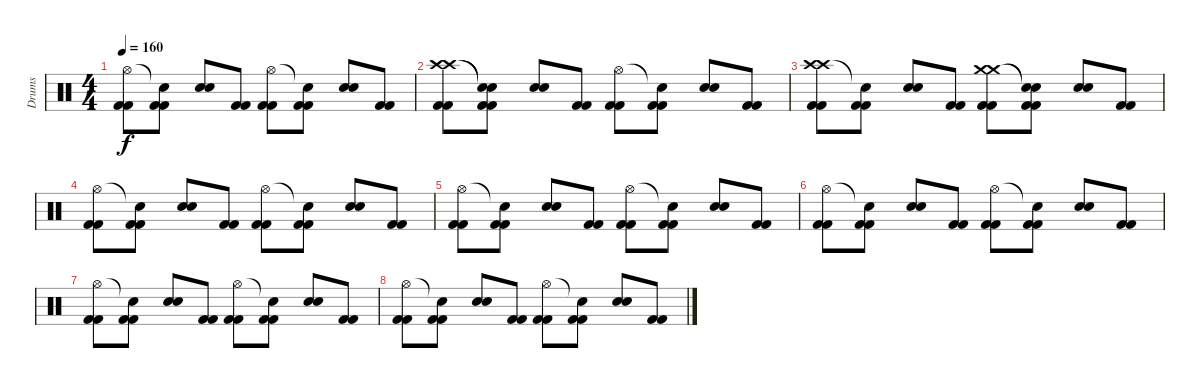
\track ("Drums" "Drums") {instrument percussion}
\staff {score}
\articulation defaults
\ts (4 4)
\tempo 160
\clef neutral
\ks c
("Hi-Hat (open)" "Kick (hit) 2" "Kick (hit) 2").8{dy f} ("Snare (hit)"{t} "Kick (hit) 2" "Kick (hit) 2").8 ("Electric Snare (hit)" "Electric Snare (hit)").8 ("Kick (hit) 2" "Kick (hit) 2").8 ("Hi-Hat (open)" "Kick (hit) 2" "Kick (hit) 2").8 ("Snare (hit)"{t} "Kick (hit) 2" "Kick (hit) 2").8 ("Electric Snare (hit)" "Electric Snare (hit)").8 ("Kick (hit) 2" "Kick (hit) 2").8 |
("Crash high (hit)" "Crash high (hit)" "Kick (hit) 2" "Kick (hit) 2").8 ("Snare (hit)"{t} "Snare (hit)"{t} "Kick (hit) 2" "Kick (hit) 2").8 ("Electric Snare (hit)" "Electric Snare (hit)").8 ("Kick (hit) 2" "Kick (hit) 2").8 ("Hi-Hat (open)" "Kick (hit) 2" "Kick (hit) 2").8 ("Snare (hit)"{t} "Kick (hit) 2" "Kick (hit) 2").8 ("Electric Snare (hit)" "Electric Snare (hit)").8 ("Kick (hit) 2" "Kick (hit) 2").8 |
("Crash high (hit)" "Crash high (hit)" "Kick (hit) 2" "Kick (hit) 2").8 ("Snare (hit)"{t} "Kick (hit) 2" "Kick (hit) 2").8 ("Electric Snare (hit)" "Electric Snare (hit)").8 ("Kick (hit) 2" "Kick (hit) 2").8 ("Crash medium (hit)" "Crash medium (hit)" "Kick (hit) 2" "Kick (hit) 2").8 ("Snare (hit)"{t} "Snare (hit)"{t} "Kick (hit) 2" "Kick (hit) 2").8 ("Electric Snare (hit)" "Electric Snare (hit)").8 ("Kick (hit) 2" "Kick (hit) 2").8 |
("Hi-Hat (open)" "Kick (hit) 2" "Kick (hit) 2").8 ("Snare (hit)"{t} "Kick (hit) 2" "Kick (hit) 2").8 ("Electric Snare (hit)" "Electric Snare (hit)").8 ("Kick (hit) 2" "Kick (hit) 2").8 ("Hi-Hat (open)" "Kick (hit) 2" "Kick (hit) 2").8 ("Snare (hit)"{t} "Kick (hit) 2" "Kick (hit) 2").8 ("Electric Snare (hit)" "Electric Snare (hit)").8 ("Kick (hit) 2" "Kick (hit) 2").8 |
("Hi-Hat (open)" "Kick (hit) 2" "Kick (hit) 2").8 ("Snare (hit)"{t} "Kick (hit) 2" "Kick (hit) 2").8 ("Electric Snare (hit)" "Electric Snare (hit)").8 ("Kick (hit) 2" "Kick (hit) 2").8 ("Hi-Hat (open)" "Kick (hit) 2" "Kick (hit) 2").8 ("Snare (hit)"{t} "Kick (hit) 2" "Kick (hit) 2").8 ("Electric Snare (hit)" "Electric Snare (hit)").8 ("Kick (hit) 2" "Kick (hit) 2").8 |
("Hi-Hat (open)" "Kick (hit) 2" "Kick (hit) 2").8 ("Snare (hit)"{t} "Kick (hit) 2" "Kick (hit) 2").8 ("Electric Snare (hit)" "Electric Snare (hit)").8 ("Kick (hit) 2" "Kick (hit) 2").8 ("Hi-Hat (open)" "Kick (hit) 2" "Kick (hit) 2").8 ("Snare (hit)"{t} "Kick (hit) 2" "Kick (hit) 2").8 ("Electric Snare (hit)" "Electric Snare (hit)").8 ("Kick (hit) 2" "Kick (hit) 2").8 |
("Hi-Hat (open)" "Kick (hit) 2" "Kick (hit) 2").8 ("Snare (hit)"{t} "Kick (hit) 2" "Kick (hit) 2").8 ("Electric Snare (hit)" "Electric Snare (hit)").8 ("Kick (hit) 2" "Kick (hit) 2").8 ("Hi-Hat (open)" "Kick (hit) 2" "Kick (hit) 2").8 ("Snare (hit)"{t} "Kick (hit) 2" "Kick (hit) 2").8 ("Electric Snare (hit)" "Electric Snare (hit)").8 ("Kick (hit) 2" "Kick (hit) 2").8 |
("Hi-Hat (open)" "Kick (hit) 2" "Kick (hit) 2").8 ("Snare (hit)"{t} "Kick (hit) 2" "Kick (hit) 2").8 ("Electric Snare (hit)" "Electric Snare (hit)").8 ("Kick (hit) 2" "Kick (hit) 2").8 ("Hi-Hat (open)" "Kick (hit) 2" "Kick (hit) 2").8 ("Snare (hit)"{t} "Kick (hit) 2" "Kick (hit) 2").8 ("Electric Snare (hit)" "Electric Snare (hit)").8 ("Kick (hit) 2" "Kick (hit) 2").8
